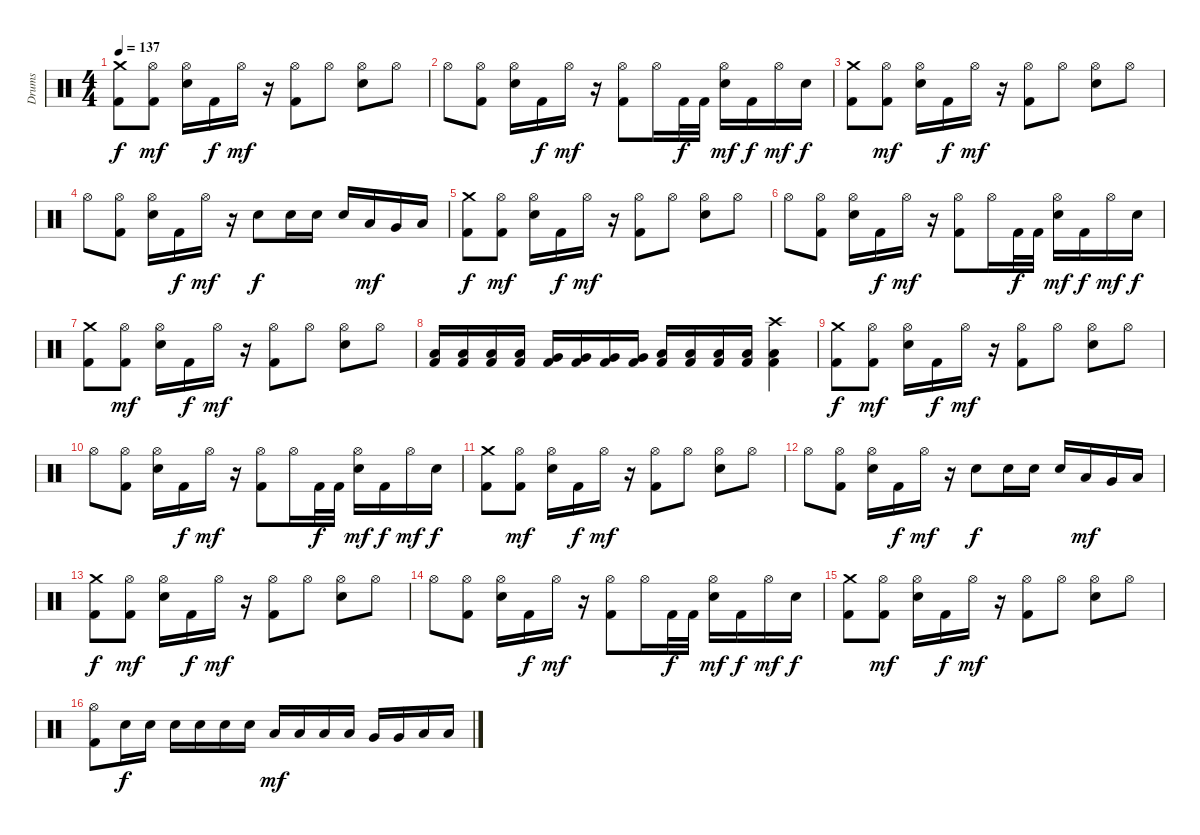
\track ("Drums" "Drums") {instrument percussion}
\staff {score}
\articulation defaults
\ts (4 4)
\tempo 137
\clef neutral
\ks c
("Crash medium (hit)" "Kick (hit) 2").8{dy f} ("Hi-Hat (open)" "Kick (hit) 2").8{dy mf} ("Hi-Hat (open)" "Snare (hit) 2").16 "Kick (hit) 2".16{dy f} "Hi-Hat (open)".16{dy mf} r.16 ("Hi-Hat (open)" "Kick (hit) 2").8 "Hi-Hat (open)".8 ("Hi-Hat (open)" "Snare (hit) 2").8 "Hi-Hat (open)".8 |
"Hi-Hat (open)".8 ("Hi-Hat (open)" "Kick (hit) 2").8 ("Hi-Hat (open)" "Snare (hit) 2").16 "Kick (hit) 2".16{dy f} "Hi-Hat (open)".16{dy mf} r.16 ("Hi-Hat (open)" "Kick (hit) 2").8 "Hi-Hat (open)".16 "Kick (hit) 2".32{dy f} "Kick (hit) 2".32 ("Hi-Hat (open)" "Snare (hit) 2").16{dy mf} "Kick (hit) 2".16{dy f} "Hi-Hat (open)".16{dy mf} "Snare (hit) 2".16{dy f} |
("Crash medium (hit)" "Kick (hit) 2").8 ("Hi-Hat (open)" "Kick (hit) 2").8{dy mf} ("Hi-Hat (open)" "Snare (hit) 2").16 "Kick (hit) 2".16{dy f} "Hi-Hat (open)".16{dy mf} r.16 ("Hi-Hat (open)" "Kick (hit) 2").8 "Hi-Hat (open)".8 ("Hi-Hat (open)" "Snare (hit) 2").8 "Hi-Hat (open)".8 |
"Hi-Hat (open)".8 ("Hi-Hat (open)" "Kick (hit) 2").8 ("Hi-Hat (open)" "Snare (hit) 2").16 "Kick (hit) 2".16{dy f} "Hi-Hat (open)".16{dy mf} r.16 "Snare (hit) 2".8{dy f} "Snare (hit) 2".16 "Snare (hit) 2".16 "Snare (hit) 2".16 "Low Tom (hit)".16{dy mf} "Very Low Tom (hit)".16 "Low Floor Tom (hit)".16 |
("Crash medium (hit)" "Kick (hit) 2").8{dy f} ("Hi-Hat (open)" "Kick (hit) 2").8{dy mf} ("Hi-Hat (open)" "Snare (hit) 2").16 "Kick (hit) 2".16{dy f} "Hi-Hat (open)".16{dy mf} r.16 ("Hi-Hat (open)" "Kick (hit) 2").8 "Hi-Hat (open)".8 ("Hi-Hat (open)" "Snare (hit) 2").8 "Hi-Hat (open)".8 |
"Hi-Hat (open)".8 ("Hi-Hat (open)" "Kick (hit) 2").8 ("Hi-Hat (open)" "Snare (hit) 2").16 "Kick (hit) 2".16{dy f} "Hi-Hat (open)".16{dy mf} r.16 ("Hi-Hat (open)" "Kick (hit) 2").8 "Hi-Hat (open)".16 "Kick (hit) 2".32{dy f} "Kick (hit) 2".32 ("Hi-Hat (open)" "Snare (hit) 2").16{dy mf} "Kick (hit) 2".16{dy f} "Hi-Hat (open)".16{dy mf} "Snare (hit) 2".16{dy f} |
("Crash medium (hit)" "Kick (hit) 2").8 ("Hi-Hat (open)" "Kick (hit) 2").8{dy mf} ("Hi-Hat (open)" "Snare (hit) 2").16 "Kick (hit) 2".16{dy f} "Hi-Hat (open)".16{dy mf} r.16 ("Hi-Hat (open)" "Kick (hit) 2").8 "Hi-Hat (open)".8 ("Hi-Hat (open)" "Snare (hit) 2").8 "Hi-Hat (open)".8 |
("Low Tom (hit)" "Kick (hit) 2").16 ("Low Tom (hit)" "Kick (hit) 2").16 ("Low Tom (hit)" "Kick (hit) 2").16 ("Low Tom (hit)" "Kick (hit) 2").16 ("Very Low Tom (hit)" "Kick (hit) 2").16 ("Very Low Tom (hit)" "Kick (hit) 2").16 ("Very Low Tom (hit)" "Kick (hit) 2").16 ("Very Low Tom (hit)" "Kick (hit) 2").16 ("Low Floor Tom (hit)" "Kick (hit) 2").16 ("Low Floor Tom (hit)" "Kick (hit) 2").16 ("Low Floor Tom (hit)" "Kick (hit) 2").16 ("Low Floor Tom (hit)" "Kick (hit) 2").16 ("Crash high (hit)" "Low Floor Tom (hit)" "Kick (hit) 2").4 |
("Crash medium (hit)" "Kick (hit) 2").8{dy f} ("Hi-Hat (open)" "Kick (hit) 2").8{dy mf} ("Hi-Hat (open)" "Snare (hit) 2").16 "Kick (hit) 2".16{dy f} "Hi-Hat (open)".16{dy mf} r.16 ("Hi-Hat (open)" "Kick (hit) 2").8 "Hi-Hat (open)".8 ("Hi-Hat (open)" "Snare (hit) 2").8 "Hi-Hat (open)".8 |
"Hi-Hat (open)".8 ("Hi-Hat (open)" "Kick (hit) 2").8 ("Hi-Hat (open)" "Snare (hit) 2").16 "Kick (hit) 2".16{dy f} "Hi-Hat (open)".16{dy mf} r.16 ("Hi-Hat (open)" "Kick (hit) 2").8 "Hi-Hat (open)".16 "Kick (hit) 2".32{dy f} "Kick (hit) 2".32 ("Hi-Hat (open)" "Snare (hit) 2").16{dy mf} "Kick (hit) 2".16{dy f} "Hi-Hat (open)".16{dy mf} "Snare (hit) 2".16{dy f} |
("Crash medium (hit)" "Kick (hit) 2").8 ("Hi-Hat (open)" "Kick (hit) 2").8{dy mf} ("Hi-Hat (open)" "Snare (hit) 2").16 "Kick (hit) 2".16{dy f} "Hi-Hat (open)".16{dy mf} r.16 ("Hi-Hat (open)" "Kick (hit) 2").8 "Hi-Hat (open)".8 ("Hi-Hat (open)" "Snare (hit) 2").8 "Hi-Hat (open)".8 |
"Hi-Hat (open)".8 ("Hi-Hat (open)" "Kick (hit) 2").8 ("Hi-Hat (open)" "Snare (hit) 2").16 "Kick (hit) 2".16{dy f} "Hi-Hat (open)".16{dy mf} r.16 "Snare (hit) 2".8{dy f} "Snare (hit) 2".16 "Snare (hit) 2".16 "Snare (hit) 2".16 "Low Tom (hit)".16{dy mf} "Very Low Tom (hit)".16 "Low Floor Tom (hit)".16 |
("Crash medium (hit)" "Kick (hit) 2").8{dy f} ("Hi-Hat (open)" "Kick (hit) 2").8{dy mf} ("Hi-Hat (open)" "Snare (hit) 2").16 "Kick (hit) 2".16{dy f} "Hi-Hat (open)".16{dy mf} r.16 ("Hi-Hat (open)" "Kick (hit) 2").8 "Hi-Hat (open)".8 ("Hi-Hat (open)" "Snare (hit) 2").8 "Hi-Hat (open)".8 |
"Hi-Hat (open)".8 ("Hi-Hat (open)" "Kick (hit) 2").8 ("Hi-Hat (open)" "Snare (hit) 2").16 "Kick (hit) 2".16{dy f} "Hi-Hat (open)".16{dy mf} r.16 ("Hi-Hat (open)" "Kick (hit) 2").8 "Hi-Hat (open)".16 "Kick (hit) 2".32{dy f} "Kick (hit) 2".32 ("Hi-Hat (open)" "Snare (hit) 2").16{dy mf} "Kick (hit) 2".16{dy f} "Hi-Hat (open)".16{dy mf} "Snare (hit) 2".16{dy f} |
("Crash medium (hit)" "Kick (hit) 2").8 ("Hi-Hat (open)" "Kick (hit) 2").8{dy mf} ("Hi-Hat (open)" "Snare (hit) 2").16 "Kick (hit) 2".16{dy f} "Hi-Hat (open)".16{dy mf} r.16 ("Hi-Hat (open)" "Kick (hit) 2").8 "Hi-Hat (open)".8 ("Hi-Hat (open)" "Snare (hit) 2").8 "Hi-Hat (open)".8 |
("Hi-Hat (open)" "Kick (hit) 2").8 "Snare (hit) 2".16{dy f} "Snare (hit) 2".16 "Snare (hit) 2".16 "Snare (hit) 2".16 "Snare (hit) 2".16 "Snare (hit) 2".16 "Low Tom (hit)".16{dy mf} "Low Tom (hit)".16 "Low Tom (hit)".16 "Low Tom (hit)".16 "Very Low Tom (hit)".16 "Very Low Tom (hit)".16 "Low Floor Tom (hit)".16 "Low Floor Tom (hit)".16
